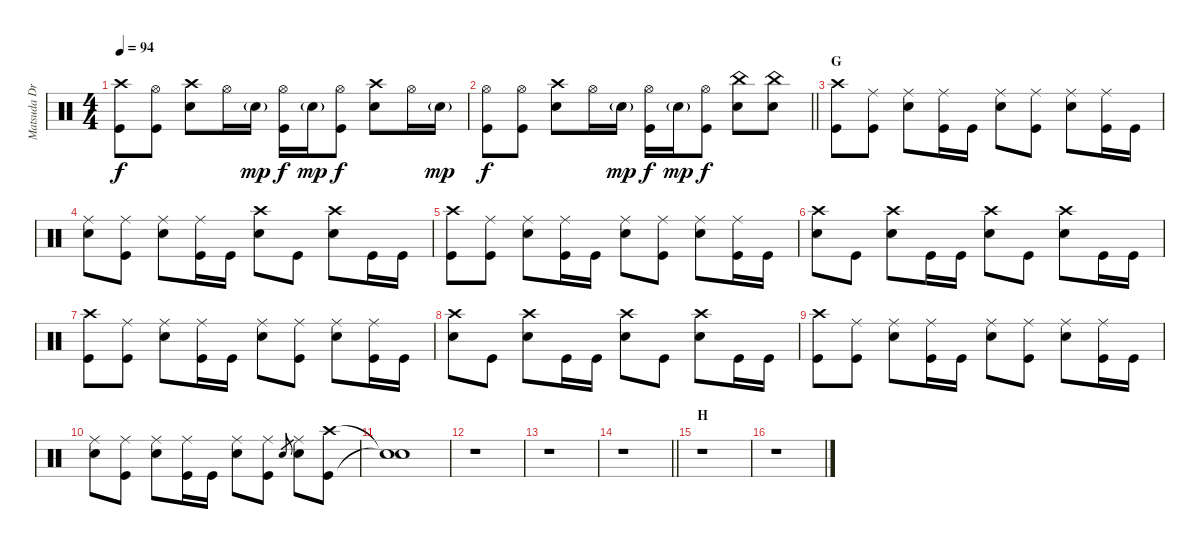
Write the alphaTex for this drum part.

\track ("Matsuda Drums" "Matsuda Dr") {instrument percussion}
\staff {score}
\articulation defaults
\ts (4 4)
\tempo 94
\clef neutral
\ks c
("Crash high (hit)" "Kick (hit)").8{dy f} ("Hi-Hat (open)" "Kick (hit)").8 ("Crash high (hit)" "Snare (hit) 2").8 "Hi-Hat (open)".16 "Snare (hit) 2"{g}.16{dy mp} ("Hi-Hat (open)" "Kick (hit)").16{dy f} "Snare (hit) 2"{g}.16{dy mp} ("Hi-Hat (open)" "Kick (hit)").8{dy f} ("Crash high (hit)" "Snare (hit) 2").8 "Hi-Hat (open)".16 "Snare (hit) 2"{g}.16{dy mp} |
\barLineRight lightlight
("Hi-Hat (open)" "Kick (hit)").8{dy f} ("Hi-Hat (open)" "Kick (hit)").8 ("Crash high (hit)" "Snare (hit) 2").8 "Hi-Hat (open)".16 "Snare (hit) 2"{g}.16{dy mp} ("Hi-Hat (open)" "Kick (hit)").16{dy f} "Snare (hit) 2"{g}.16{dy mp} ("Hi-Hat (open)" "Kick (hit)").8{dy f} ("China (hit)" "Snare (hit) 2").8 ("China (hit)" "Snare (hit) 2").8 |
\section ("" "G")
("Crash high (hit)" "Kick (hit)").8 ("Ride (middle)" "Kick (hit)").8 ("Ride (middle)" "Snare (hit) 2").8 ("Ride (middle)" "Kick (hit)").16 "Kick (hit)".16 ("Ride (middle)" "Snare (hit) 2").8 ("Ride (middle)" "Kick (hit)").8 ("Ride (middle)" "Snare (hit) 2").8 ("Ride (middle)" "Kick (hit)").16 "Kick (hit)".16 |
("Ride (middle)" "Snare (hit) 2").8 ("Ride (middle)" "Kick (hit)").8 ("Ride (middle)" "Snare (hit) 2").8 ("Ride (middle)" "Kick (hit)").16 "Kick (hit)".16 ("Crash high (hit)" "Snare (hit) 2").8 "Kick (hit)".8 ("Crash high (hit)" "Snare (hit) 2").8 "Kick (hit)".16 "Kick (hit)".16 |
("Crash high (hit)" "Kick (hit)").8 ("Ride (middle)" "Kick (hit)").8 ("Ride (middle)" "Snare (hit) 2").8 ("Ride (middle)" "Kick (hit)").16 "Kick (hit)".16 ("Ride (middle)" "Snare (hit) 2").8 ("Ride (middle)" "Kick (hit)").8 ("Ride (middle)" "Snare (hit) 2").8 ("Ride (middle)" "Kick (hit)").16 "Kick (hit)".16 |
("Crash high (hit)" "Snare (hit) 2").8 "Kick (hit)".8 ("Crash high (hit)" "Snare (hit) 2").8 "Kick (hit)".16 "Kick (hit)".16 ("Crash high (hit)" "Snare (hit) 2").8 "Kick (hit)".8 ("Crash high (hit)" "Snare (hit) 2").8 "Kick (hit)".16 "Kick (hit)".16 |
("Crash high (hit)" "Kick (hit)").8 ("Ride (middle)" "Kick (hit)").8 ("Ride (middle)" "Snare (hit) 2").8 ("Ride (middle)" "Kick (hit)").16 "Kick (hit)".16 ("Ride (middle)" "Snare (hit) 2").8 ("Ride (middle)" "Kick (hit)").8 ("Ride (middle)" "Snare (hit) 2").8 ("Ride (middle)" "Kick (hit)").16 "Kick (hit)".16 |
("Crash high (hit)" "Snare (hit) 2").8 "Kick (hit)".8 ("Crash high (hit)" "Snare (hit) 2").8 "Kick (hit)".16 "Kick (hit)".16 ("Crash high (hit)" "Snare (hit) 2").8 "Kick (hit)".8 ("Crash high (hit)" "Snare (hit) 2").8 "Kick (hit)".16 "Kick (hit)".16 |
("Crash high (hit)" "Kick (hit)").8 ("Ride (middle)" "Kick (hit)").8 ("Ride (middle)" "Snare (hit) 2").8 ("Ride (middle)" "Kick (hit)").16 "Kick (hit)".16 ("Ride (middle)" "Snare (hit) 2").8 ("Ride (middle)" "Kick (hit)").8 ("Ride (middle)" "Snare (hit) 2").8 ("Ride (middle)" "Kick (hit)").16 "Kick (hit)".16 |
("Ride (middle)" "Snare (hit) 2").8 ("Ride (middle)" "Kick (hit)").8 ("Ride (middle)" "Snare (hit) 2").8 ("Ride (middle)" "Kick (hit)").16 "Kick (hit)".16 ("Ride (middle)" "Snare (hit) 2").8 ("Ride (middle)" "Kick (hit)").8 "Snare (hit) 2".8{gr} ("Ride (middle)" "Snare (hit) 2").8 ("Crash high (hit)" "Kick (hit)").8 |
("Snare (hit)"{t} "Snare (hit)"{t}).1 |
r.1 |
r.1 |
\barLineRight lightlight
r.1 |
\section ("" "H")
r.1 |
r.1
